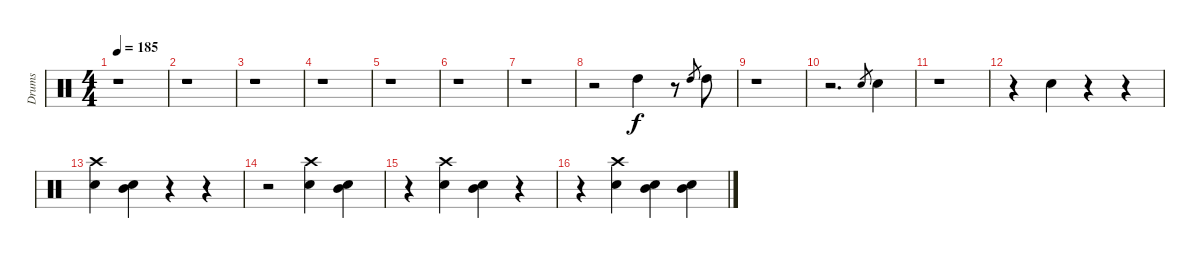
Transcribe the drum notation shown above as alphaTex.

\track ("Drums" "Drums") {instrument percussion}
\staff {score}
\articulation defaults
\ts (4 4)
\tempo 185
\clef neutral
\ks c
r.1{dy f} |
r.1 |
r.1 |
r.1 |
r.1 |
r.1 |
r.1 |
r.2 "High Tom (hit)".4 r.8 "High Tom (hit)".8{gr} "High Tom (hit)".8 |
r.1 |
r.2{d} "Electric Snare (hit)".8{gr} "Electric Snare (hit)".4 |
r.1 |
r.4 "Electric Snare (hit)".4 r.4 r.4 |
("Crash high (hit)" "Electric Snare (hit)").4 ("Electric Snare (hit)" "Mid Tom (hit)").4 r.4 r.4 |
r.2 ("Crash high (hit)" "Electric Snare (hit)").4 ("Electric Snare (hit)" "Mid Tom (hit)").4 |
r.4 ("Crash high (hit)" "Electric Snare (hit)").4 ("Electric Snare (hit)" "Mid Tom (hit)").4 r.4 |
r.4 ("Crash high (hit)" "Electric Snare (hit)").4 ("Electric Snare (hit)" "Mid Tom (hit)").4 ("Electric Snare (hit)" "Mid Tom (hit)").4
